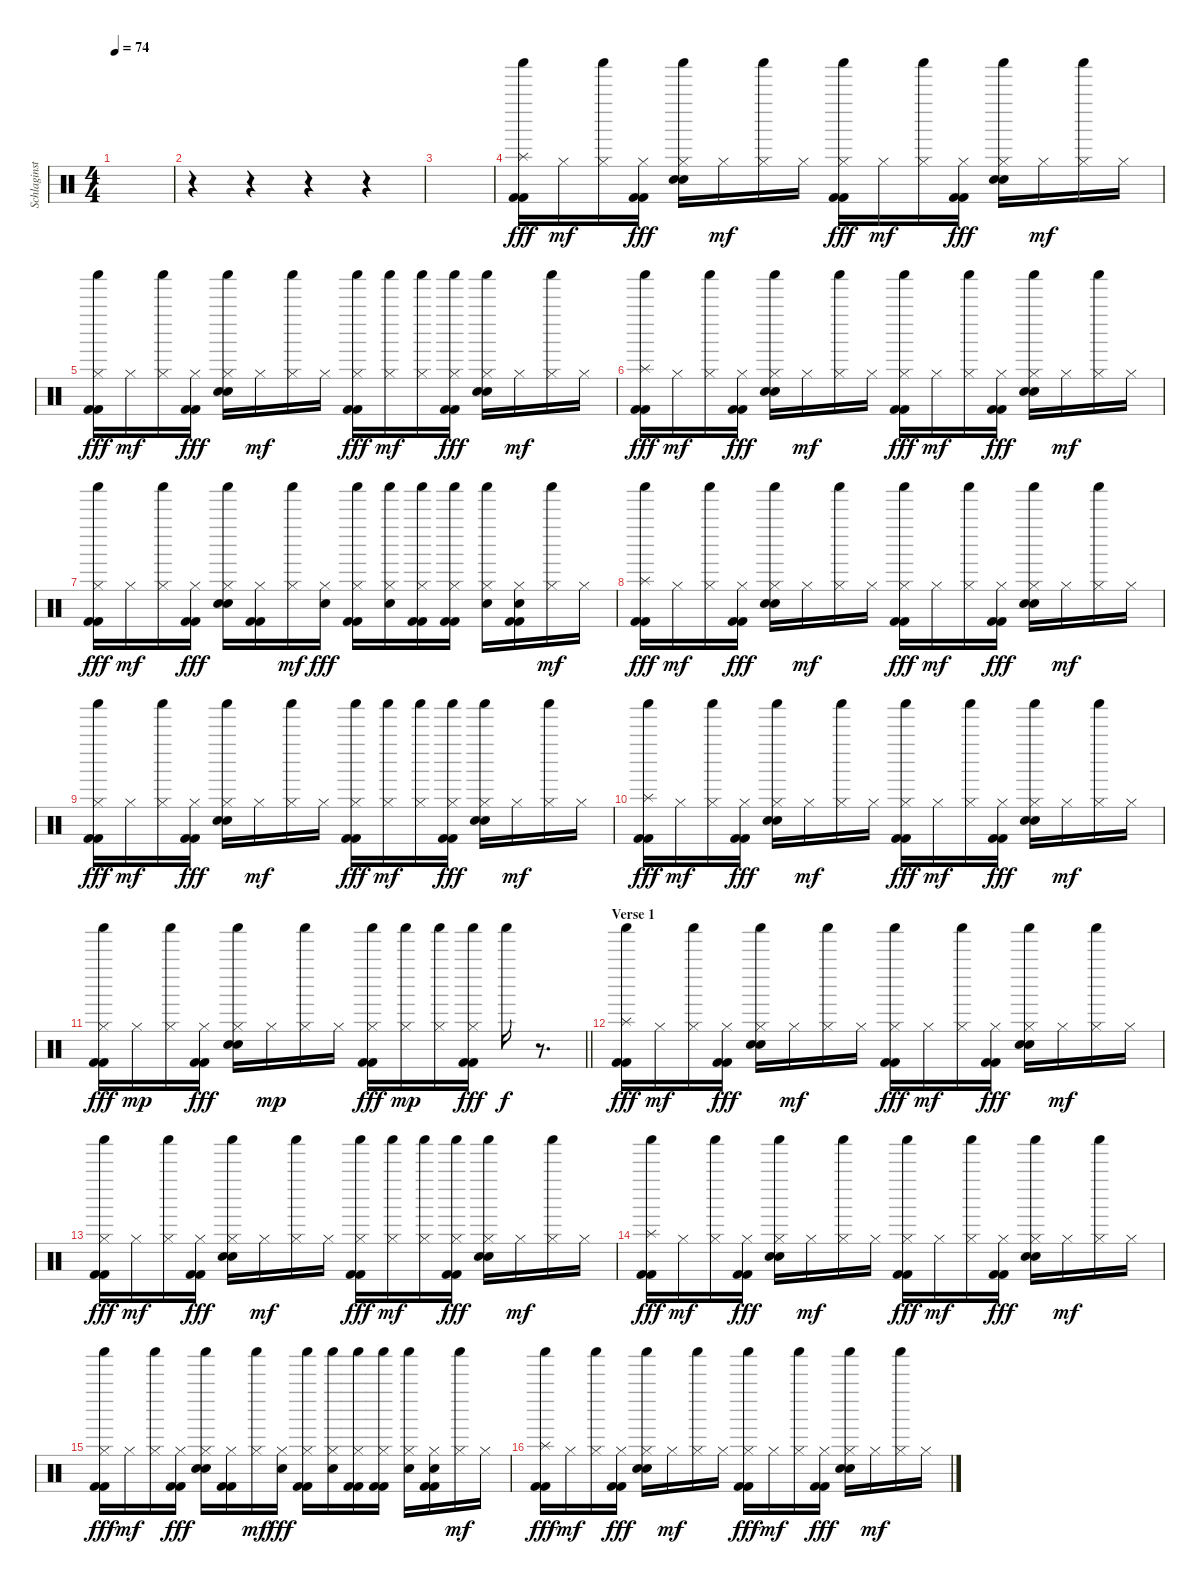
\track ("Schlaginstrumente - Auswahl" "Schlaginst") {instrument percussion}
\staff {score}
\articulation defaults
\ts (4 4)
\tempo 74
\clef neutral
\ks c
|
r.4 r.4 r.4 r.4 |
|
("Shaker (hit)" "Splash (hit)" "Kick (hit) 2" "Kick (hit) 2").16{dy fff} "Hi-Hat (closed)".16{dy mf} ("Shaker (hit)" "Hi-Hat (closed)").16 ("Hi-Hat (closed)" "Kick (hit) 2" "Kick (hit) 2").16{dy fff} ("Shaker (hit)" "Hi-Hat (closed)" "Electric Snare (hit)" "Hand Clap (hit)").16 "Hi-Hat (closed)".16{dy mf} ("Shaker (hit)" "Hi-Hat (closed)").16 "Hi-Hat (closed)".16 ("Shaker (hit)" "Hi-Hat (closed)" "Kick (hit) 2" "Kick (hit) 2").16{dy fff} "Hi-Hat (closed)".16{dy mf} ("Shaker (hit)" "Hi-Hat (closed)").16 ("Hi-Hat (closed)" "Kick (hit) 2" "Kick (hit) 2").16{dy fff} ("Shaker (hit)" "Hi-Hat (closed)" "Electric Snare (hit)" "Hand Clap (hit)").16 "Hi-Hat (closed)".16{dy mf} ("Shaker (hit)" "Hi-Hat (closed)").16 "Hi-Hat (closed)".16 |
("Shaker (hit)" "Hi-Hat (closed)" "Kick (hit) 2" "Kick (hit) 2").16{dy fff} "Hi-Hat (closed)".16{dy mf} ("Shaker (hit)" "Hi-Hat (closed)").16 ("Hi-Hat (closed)" "Kick (hit) 2" "Kick (hit) 2").16{dy fff} ("Shaker (hit)" "Hi-Hat (closed)" "Electric Snare (hit)" "Hand Clap (hit)").16 "Hi-Hat (closed)".16{dy mf} ("Shaker (hit)" "Hi-Hat (closed)").16 "Hi-Hat (closed)".16 ("Shaker (hit)" "Hi-Hat (closed)" "Kick (hit) 2" "Kick (hit) 2").16{dy fff} ("Shaker (hit)" "Hi-Hat (closed)").16{dy mf} ("Shaker (hit)" "Hi-Hat (closed)").16 ("Shaker (hit)" "Hi-Hat (closed)" "Kick (hit) 2" "Kick (hit) 2").16{dy fff} ("Shaker (hit)" "Hi-Hat (closed)" "Electric Snare (hit)" "Hand Clap (hit)").16 "Hi-Hat (closed)".16{dy mf} ("Shaker (hit)" "Hi-Hat (closed)").16 "Hi-Hat (closed)".16 |
("Shaker (hit)" "Splash (hit)" "Kick (hit) 2" "Kick (hit) 2").16{dy fff} "Hi-Hat (closed)".16{dy mf} ("Shaker (hit)" "Hi-Hat (closed)").16 ("Hi-Hat (closed)" "Kick (hit) 2" "Kick (hit) 2").16{dy fff} ("Shaker (hit)" "Hi-Hat (closed)" "Electric Snare (hit)" "Hand Clap (hit)").16 "Hi-Hat (closed)".16{dy mf} ("Shaker (hit)" "Hi-Hat (closed)").16 "Hi-Hat (closed)".16 ("Shaker (hit)" "Hi-Hat (closed)" "Kick (hit) 2" "Kick (hit) 2").16{dy fff} "Hi-Hat (closed)".16{dy mf} ("Shaker (hit)" "Hi-Hat (closed)").16 ("Hi-Hat (closed)" "Kick (hit) 2" "Kick (hit) 2").16{dy fff} ("Shaker (hit)" "Hi-Hat (closed)" "Electric Snare (hit)" "Hand Clap (hit)").16 "Hi-Hat (closed)".16{dy mf} ("Shaker (hit)" "Hi-Hat (closed)").16 "Hi-Hat (closed)".16 |
("Shaker (hit)" "Hi-Hat (closed)" "Kick (hit) 2" "Kick (hit) 2").16{dy fff} "Hi-Hat (closed)".16{dy mf} ("Shaker (hit)" "Hi-Hat (closed)").16 ("Hi-Hat (closed)" "Kick (hit) 2" "Kick (hit) 2").16{dy fff} ("Shaker (hit)" "Hi-Hat (closed)" "Electric Snare (hit)" "Hand Clap (hit)").16 ("Hi-Hat (closed)" "Kick (hit) 2" "Kick (hit) 2").16 ("Shaker (hit)" "Hi-Hat (closed)").16{dy mf} ("Hi-Hat (closed)" "Electric Snare (hit)").16{dy fff} ("Shaker (hit)" "Hi-Hat (closed)" "Kick (hit) 2" "Kick (hit) 2").16 ("Shaker (hit)" "Hi-Hat (closed)" "Electric Snare (hit)").16 ("Shaker (hit)" "Hi-Hat (closed)" "Kick (hit) 2" "Kick (hit) 2").16 ("Shaker (hit)" "Hi-Hat (closed)" "Kick (hit) 2" "Kick (hit) 2").16 ("Shaker (hit)" "Hi-Hat (closed)" "Electric Snare (hit)").16 ("Hi-Hat (closed)" "Hand Clap (hit)" "Kick (hit) 2" "Kick (hit) 2").16 ("Shaker (hit)" "Hi-Hat (closed)").16{dy mf} "Hi-Hat (closed)".16 |
("Shaker (hit)" "Splash (hit)" "Kick (hit) 2" "Kick (hit) 2").16{dy fff} "Hi-Hat (closed)".16{dy mf} ("Shaker (hit)" "Hi-Hat (closed)").16 ("Hi-Hat (closed)" "Kick (hit) 2" "Kick (hit) 2").16{dy fff} ("Shaker (hit)" "Hi-Hat (closed)" "Electric Snare (hit)" "Hand Clap (hit)").16 "Hi-Hat (closed)".16{dy mf} ("Shaker (hit)" "Hi-Hat (closed)").16 "Hi-Hat (closed)".16 ("Shaker (hit)" "Hi-Hat (closed)" "Kick (hit) 2" "Kick (hit) 2").16{dy fff} "Hi-Hat (closed)".16{dy mf} ("Shaker (hit)" "Hi-Hat (closed)").16 ("Hi-Hat (closed)" "Kick (hit) 2" "Kick (hit) 2").16{dy fff} ("Shaker (hit)" "Hi-Hat (closed)" "Electric Snare (hit)" "Hand Clap (hit)").16 "Hi-Hat (closed)".16{dy mf} ("Shaker (hit)" "Hi-Hat (closed)").16 "Hi-Hat (closed)".16 |
("Shaker (hit)" "Hi-Hat (closed)" "Kick (hit) 2" "Kick (hit) 2").16{dy fff} "Hi-Hat (closed)".16{dy mf} ("Shaker (hit)" "Hi-Hat (closed)").16 ("Hi-Hat (closed)" "Kick (hit) 2" "Kick (hit) 2").16{dy fff} ("Shaker (hit)" "Hi-Hat (closed)" "Electric Snare (hit)" "Hand Clap (hit)").16 "Hi-Hat (closed)".16{dy mf} ("Shaker (hit)" "Hi-Hat (closed)").16 "Hi-Hat (closed)".16 ("Shaker (hit)" "Hi-Hat (closed)" "Kick (hit) 2" "Kick (hit) 2").16{dy fff} ("Shaker (hit)" "Hi-Hat (closed)").16{dy mf} ("Shaker (hit)" "Hi-Hat (closed)").16 ("Shaker (hit)" "Hi-Hat (closed)" "Kick (hit) 2" "Kick (hit) 2").16{dy fff} ("Shaker (hit)" "Hi-Hat (closed)" "Electric Snare (hit)" "Hand Clap (hit)").16 "Hi-Hat (closed)".16{dy mf} ("Shaker (hit)" "Hi-Hat (closed)").16 "Hi-Hat (closed)".16 |
("Shaker (hit)" "Splash (hit)" "Kick (hit) 2" "Kick (hit) 2").16{dy fff} "Hi-Hat (closed)".16{dy mf} ("Shaker (hit)" "Hi-Hat (closed)").16 ("Hi-Hat (closed)" "Kick (hit) 2" "Kick (hit) 2").16{dy fff} ("Shaker (hit)" "Hi-Hat (closed)" "Electric Snare (hit)" "Hand Clap (hit)").16 "Hi-Hat (closed)".16{dy mf} ("Shaker (hit)" "Hi-Hat (closed)").16 "Hi-Hat (closed)".16 ("Shaker (hit)" "Hi-Hat (closed)" "Kick (hit) 2" "Kick (hit) 2").16{dy fff} "Hi-Hat (closed)".16{dy mf} ("Shaker (hit)" "Hi-Hat (closed)").16 ("Hi-Hat (closed)" "Kick (hit) 2" "Kick (hit) 2").16{dy fff} ("Shaker (hit)" "Hi-Hat (closed)" "Electric Snare (hit)" "Hand Clap (hit)").16 "Hi-Hat (closed)".16{dy mf} ("Shaker (hit)" "Hi-Hat (closed)").16 "Hi-Hat (closed)".16 |
\barLineRight lightlight
("Shaker (hit)" "Hi-Hat (closed)" "Kick (hit) 2" "Kick (hit) 2").16{dy fff} "Hi-Hat (closed)".16{dy mp} ("Shaker (hit)" "Hi-Hat (closed)").16 ("Hi-Hat (closed)" "Kick (hit) 2" "Kick (hit) 2").16{dy fff} ("Shaker (hit)" "Hi-Hat (closed)" "Electric Snare (hit)" "Hand Clap (hit)").16 "Hi-Hat (closed)".16{dy mp} ("Shaker (hit)" "Hi-Hat (closed)").16 "Hi-Hat (closed)".16 ("Shaker (hit)" "Hi-Hat (closed)" "Kick (hit) 2" "Kick (hit) 2").16{dy fff} ("Shaker (hit)" "Hi-Hat (closed)").16{dy mp} ("Shaker (hit)" "Hi-Hat (closed)").16 ("Shaker (hit)" "Hi-Hat (closed)" "Kick (hit) 2" "Kick (hit) 2").16{dy fff} "Shaker (hit)".16{dy f} r.8{d} |
\section ("" "Verse 1")
("Shaker (hit)" "Splash (hit)" "Kick (hit) 2" "Kick (hit) 2").16{dy fff} "Hi-Hat (closed)".16{dy mf} ("Shaker (hit)" "Hi-Hat (closed)").16 ("Hi-Hat (closed)" "Kick (hit) 2" "Kick (hit) 2").16{dy fff} ("Shaker (hit)" "Hi-Hat (closed)" "Electric Snare (hit)" "Hand Clap (hit)").16 "Hi-Hat (closed)".16{dy mf} ("Shaker (hit)" "Hi-Hat (closed)").16 "Hi-Hat (closed)".16 ("Shaker (hit)" "Hi-Hat (closed)" "Kick (hit) 2" "Kick (hit) 2").16{dy fff} "Hi-Hat (closed)".16{dy mf} ("Shaker (hit)" "Hi-Hat (closed)").16 ("Hi-Hat (closed)" "Kick (hit) 2" "Kick (hit) 2").16{dy fff} ("Shaker (hit)" "Hi-Hat (closed)" "Electric Snare (hit)" "Hand Clap (hit)").16 "Hi-Hat (closed)".16{dy mf} ("Shaker (hit)" "Hi-Hat (closed)").16 "Hi-Hat (closed)".16 |
("Shaker (hit)" "Hi-Hat (closed)" "Kick (hit) 2" "Kick (hit) 2").16{dy fff} "Hi-Hat (closed)".16{dy mf} ("Shaker (hit)" "Hi-Hat (closed)").16 ("Hi-Hat (closed)" "Kick (hit) 2" "Kick (hit) 2").16{dy fff} ("Shaker (hit)" "Hi-Hat (closed)" "Electric Snare (hit)" "Hand Clap (hit)").16 "Hi-Hat (closed)".16{dy mf} ("Shaker (hit)" "Hi-Hat (closed)").16 "Hi-Hat (closed)".16 ("Shaker (hit)" "Hi-Hat (closed)" "Kick (hit) 2" "Kick (hit) 2").16{dy fff} ("Shaker (hit)" "Hi-Hat (closed)").16{dy mf} ("Shaker (hit)" "Hi-Hat (closed)").16 ("Shaker (hit)" "Hi-Hat (closed)" "Kick (hit) 2" "Kick (hit) 2").16{dy fff} ("Shaker (hit)" "Hi-Hat (closed)" "Electric Snare (hit)" "Hand Clap (hit)").16 "Hi-Hat (closed)".16{dy mf} ("Shaker (hit)" "Hi-Hat (closed)").16 "Hi-Hat (closed)".16 |
("Shaker (hit)" "Splash (hit)" "Kick (hit) 2" "Kick (hit) 2").16{dy fff} "Hi-Hat (closed)".16{dy mf} ("Shaker (hit)" "Hi-Hat (closed)").16 ("Hi-Hat (closed)" "Kick (hit) 2" "Kick (hit) 2").16{dy fff} ("Shaker (hit)" "Hi-Hat (closed)" "Electric Snare (hit)" "Hand Clap (hit)").16 "Hi-Hat (closed)".16{dy mf} ("Shaker (hit)" "Hi-Hat (closed)").16 "Hi-Hat (closed)".16 ("Shaker (hit)" "Hi-Hat (closed)" "Kick (hit) 2" "Kick (hit) 2").16{dy fff} "Hi-Hat (closed)".16{dy mf} ("Shaker (hit)" "Hi-Hat (closed)").16 ("Hi-Hat (closed)" "Kick (hit) 2" "Kick (hit) 2").16{dy fff} ("Shaker (hit)" "Hi-Hat (closed)" "Electric Snare (hit)" "Hand Clap (hit)").16 "Hi-Hat (closed)".16{dy mf} ("Shaker (hit)" "Hi-Hat (closed)").16 "Hi-Hat (closed)".16 |
("Shaker (hit)" "Hi-Hat (closed)" "Kick (hit) 2" "Kick (hit) 2").16{dy fff} "Hi-Hat (closed)".16{dy mf} ("Shaker (hit)" "Hi-Hat (closed)").16 ("Hi-Hat (closed)" "Kick (hit) 2" "Kick (hit) 2").16{dy fff} ("Shaker (hit)" "Hi-Hat (closed)" "Electric Snare (hit)" "Hand Clap (hit)").16 ("Hi-Hat (closed)" "Kick (hit) 2" "Kick (hit) 2").16 ("Shaker (hit)" "Hi-Hat (closed)").16{dy mf} ("Hi-Hat (closed)" "Electric Snare (hit)").16{dy fff} ("Shaker (hit)" "Hi-Hat (closed)" "Kick (hit) 2" "Kick (hit) 2").16 ("Shaker (hit)" "Hi-Hat (closed)" "Electric Snare (hit)").16 ("Shaker (hit)" "Hi-Hat (closed)" "Kick (hit) 2" "Kick (hit) 2").16 ("Shaker (hit)" "Hi-Hat (closed)" "Kick (hit) 2" "Kick (hit) 2").16 ("Shaker (hit)" "Hi-Hat (closed)" "Electric Snare (hit)").16 ("Hi-Hat (closed)" "Hand Clap (hit)" "Kick (hit) 2" "Kick (hit) 2").16 ("Shaker (hit)" "Hi-Hat (closed)").16{dy mf} "Hi-Hat (closed)".16 |
("Shaker (hit)" "Splash (hit)" "Kick (hit) 2" "Kick (hit) 2").16{dy fff} "Hi-Hat (closed)".16{dy mf} ("Shaker (hit)" "Hi-Hat (closed)").16 ("Hi-Hat (closed)" "Kick (hit) 2" "Kick (hit) 2").16{dy fff} ("Shaker (hit)" "Hi-Hat (closed)" "Electric Snare (hit)" "Hand Clap (hit)").16 "Hi-Hat (closed)".16{dy mf} ("Shaker (hit)" "Hi-Hat (closed)").16 "Hi-Hat (closed)".16 ("Shaker (hit)" "Hi-Hat (closed)" "Kick (hit) 2" "Kick (hit) 2").16{dy fff} "Hi-Hat (closed)".16{dy mf} ("Shaker (hit)" "Hi-Hat (closed)").16 ("Hi-Hat (closed)" "Kick (hit) 2" "Kick (hit) 2").16{dy fff} ("Shaker (hit)" "Hi-Hat (closed)" "Electric Snare (hit)" "Hand Clap (hit)").16 "Hi-Hat (closed)".16{dy mf} ("Shaker (hit)" "Hi-Hat (closed)").16 "Hi-Hat (closed)".16
